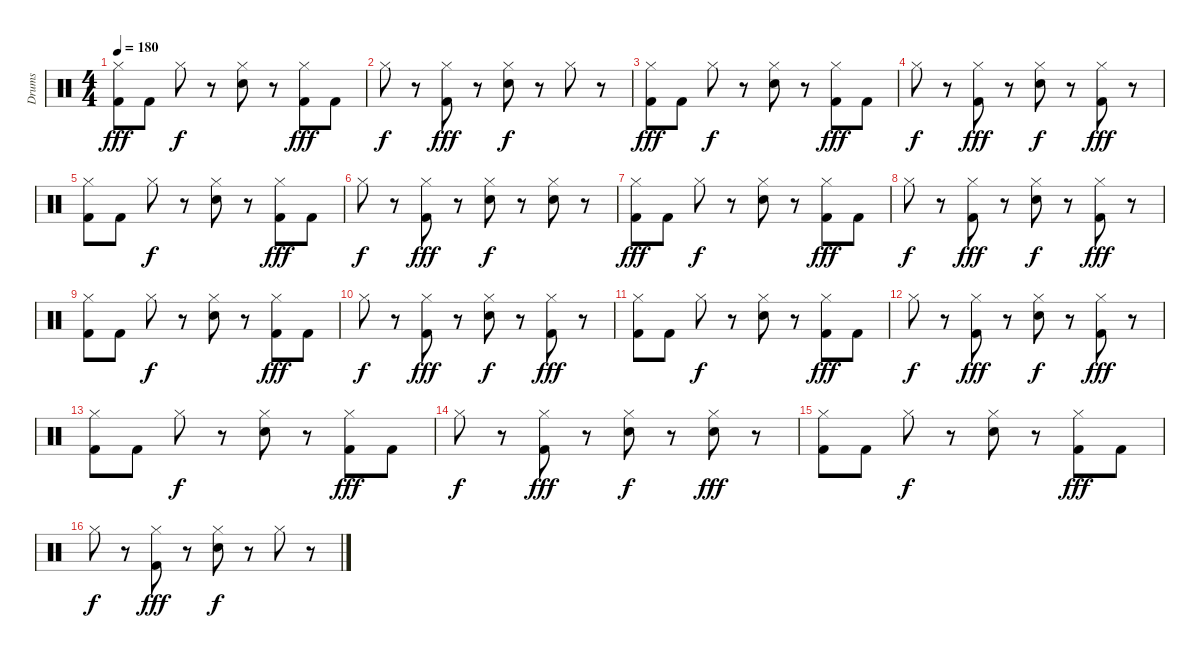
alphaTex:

\track ("Drums" "Drums") {instrument percussion}
\staff {score}
\articulation defaults
\ts (4 4)
\tempo 180
\clef neutral
\ks c
("Hi-Hat (closed)" "Kick (hit) 2").8{dy fff} "Kick (hit) 2".8 "Hi-Hat (closed)".8{dy f} r.8 ("Hi-Hat (closed)" "Electric Snare (hit)").8 r.8 ("Hi-Hat (closed)" "Kick (hit) 2").8{dy fff} "Kick (hit) 2".8 |
"Hi-Hat (closed)".8{dy f} r.8 ("Hi-Hat (closed)" "Kick (hit) 2").8{dy fff} r.8 ("Hi-Hat (closed)" "Electric Snare (hit)").8{dy f} r.8 "Hi-Hat (closed)".8 r.8 |
("Hi-Hat (closed)" "Kick (hit) 2").8{dy fff} "Kick (hit) 2".8 "Hi-Hat (closed)".8{dy f} r.8 ("Hi-Hat (closed)" "Electric Snare (hit)").8 r.8 ("Hi-Hat (closed)" "Kick (hit) 2").8{dy fff} "Kick (hit) 2".8 |
"Hi-Hat (closed)".8{dy f} r.8 ("Hi-Hat (closed)" "Kick (hit) 2").8{dy fff} r.8 ("Hi-Hat (closed)" "Electric Snare (hit)").8{dy f} r.8 ("Hi-Hat (closed)" "Kick (hit) 2").8{dy fff} r.8 |
("Hi-Hat (closed)" "Kick (hit) 2").8 "Kick (hit) 2".8 "Hi-Hat (closed)".8{dy f} r.8 ("Hi-Hat (closed)" "Electric Snare (hit)").8 r.8 ("Hi-Hat (closed)" "Kick (hit) 2").8{dy fff} "Kick (hit) 2".8 |
"Hi-Hat (closed)".8{dy f} r.8 ("Hi-Hat (closed)" "Kick (hit) 2").8{dy fff} r.8 ("Hi-Hat (closed)" "Electric Snare (hit)").8{dy f} r.8 ("Hi-Hat (closed)" "Electric Snare (hit)").8 r.8 |
("Hi-Hat (closed)" "Kick (hit) 2").8{dy fff} "Kick (hit) 2".8 "Hi-Hat (closed)".8{dy f} r.8 ("Hi-Hat (closed)" "Electric Snare (hit)").8 r.8 ("Hi-Hat (closed)" "Kick (hit) 2").8{dy fff} "Kick (hit) 2".8 |
"Hi-Hat (closed)".8{dy f} r.8 ("Hi-Hat (closed)" "Kick (hit) 2").8{dy fff} r.8 ("Hi-Hat (closed)" "Electric Snare (hit)").8{dy f} r.8 ("Hi-Hat (closed)" "Kick (hit) 2").8{dy fff} r.8 |
("Hi-Hat (closed)" "Kick (hit) 2").8 "Kick (hit) 2".8 "Hi-Hat (closed)".8{dy f} r.8 ("Hi-Hat (closed)" "Electric Snare (hit)").8 r.8 ("Hi-Hat (closed)" "Kick (hit) 2").8{dy fff} "Kick (hit) 2".8 |
"Hi-Hat (closed)".8{dy f} r.8 ("Hi-Hat (closed)" "Kick (hit) 2").8{dy fff} r.8 ("Hi-Hat (closed)" "Electric Snare (hit)").8{dy f} r.8 ("Hi-Hat (closed)" "Kick (hit) 2").8{dy fff} r.8 |
("Hi-Hat (closed)" "Kick (hit) 2").8 "Kick (hit) 2".8 "Hi-Hat (closed)".8{dy f} r.8 ("Hi-Hat (closed)" "Electric Snare (hit)").8 r.8 ("Hi-Hat (closed)" "Kick (hit) 2").8{dy fff} "Kick (hit) 2".8 |
"Hi-Hat (closed)".8{dy f} r.8 ("Hi-Hat (closed)" "Kick (hit) 2").8{dy fff} r.8 ("Hi-Hat (closed)" "Electric Snare (hit)").8{dy f} r.8 ("Hi-Hat (closed)" "Kick (hit) 2").8{dy fff} r.8 |
("Hi-Hat (closed)" "Kick (hit) 2").8 "Kick (hit) 2".8 "Hi-Hat (closed)".8{dy f} r.8 ("Hi-Hat (closed)" "Electric Snare (hit)").8 r.8 ("Hi-Hat (closed)" "Kick (hit) 2").8{dy fff} "Kick (hit) 2".8 |
"Hi-Hat (closed)".8{dy f} r.8 ("Hi-Hat (closed)" "Kick (hit) 2").8{dy fff} r.8 ("Hi-Hat (closed)" "Electric Snare (hit)").8{dy f} r.8 ("Hi-Hat (closed)" "Electric Snare (hit)").8{dy fff} r.8 |
("Hi-Hat (closed)" "Kick (hit) 2").8 "Kick (hit) 2".8 "Hi-Hat (closed)".8{dy f} r.8 ("Hi-Hat (closed)" "Electric Snare (hit)").8 r.8 ("Hi-Hat (closed)" "Kick (hit) 2").8{dy fff} "Kick (hit) 2".8 |
"Hi-Hat (closed)".8{dy f} r.8 ("Hi-Hat (closed)" "Kick (hit) 2").8{dy fff} r.8 ("Hi-Hat (closed)" "Electric Snare (hit)").8{dy f} r.8 "Hi-Hat (closed)".8 r.8
